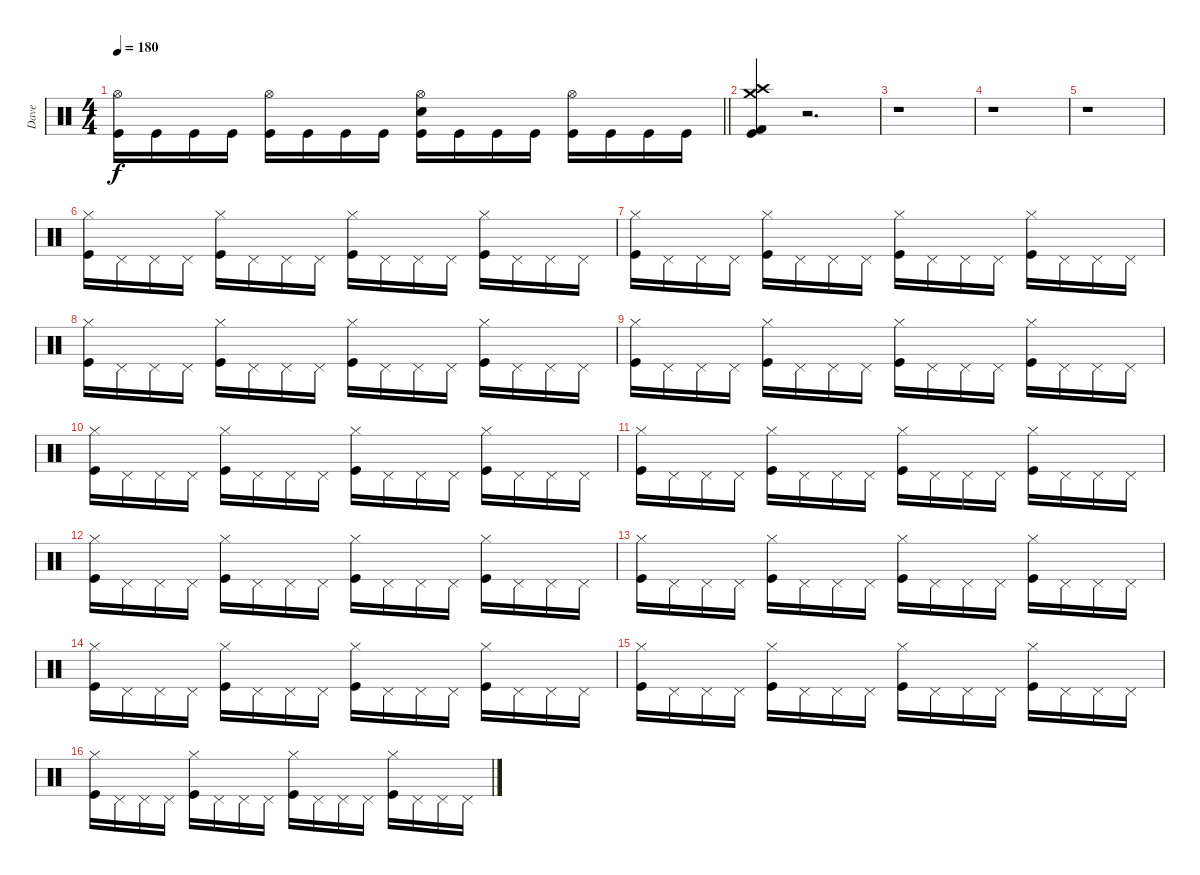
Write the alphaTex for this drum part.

\track ("Dave" "Dave") {instrument percussion}
\staff {score}
\articulation defaults
\ts (4 4)
\tempo 180
\clef neutral
\barLineRight lightlight
\ks c
("Hi-Hat (open)" "Kick (hit)").16{dy f} "Kick (hit)".16 "Kick (hit)".16 "Kick (hit)".16 ("Hi-Hat (open)" "Kick (hit)").16 "Kick (hit)".16 "Kick (hit)".16 "Kick (hit)".16 ("Hi-Hat (open)" "Snare (hit) 2" "Kick (hit)").16 "Kick (hit)".16 "Kick (hit)".16 "Kick (hit)".16 ("Hi-Hat (open)" "Kick (hit)").16 "Kick (hit)".16 "Kick (hit)".16 "Kick (hit)".16 |
("Crash high (hit)" "Crash medium (hit)" "Kick (hit) 2" "Kick (hit)").4 r.2{d} |
r.1 |
r.1 |
r.1 |
("Kick (hit)" "Hi-Hat (closed)").16 "Pedal Hi-Hat (hit)".16 "Pedal Hi-Hat (hit)".16 "Pedal Hi-Hat (hit)".16 ("Kick (hit)" "Hi-Hat (closed)").16 "Pedal Hi-Hat (hit)".16 "Pedal Hi-Hat (hit)".16 "Pedal Hi-Hat (hit)".16 ("Kick (hit)" "Hi-Hat (closed)").16 "Pedal Hi-Hat (hit)".16 "Pedal Hi-Hat (hit)".16 "Pedal Hi-Hat (hit)".16 ("Kick (hit)" "Hi-Hat (closed)").16 "Pedal Hi-Hat (hit)".16 "Pedal Hi-Hat (hit)".16 "Pedal Hi-Hat (hit)".16 |
("Kick (hit)" "Hi-Hat (closed)").16 "Pedal Hi-Hat (hit)".16 "Pedal Hi-Hat (hit)".16 "Pedal Hi-Hat (hit)".16 ("Kick (hit)" "Hi-Hat (closed)").16 "Pedal Hi-Hat (hit)".16 "Pedal Hi-Hat (hit)".16 "Pedal Hi-Hat (hit)".16 ("Kick (hit)" "Hi-Hat (closed)").16 "Pedal Hi-Hat (hit)".16 "Pedal Hi-Hat (hit)".16 "Pedal Hi-Hat (hit)".16 ("Kick (hit)" "Hi-Hat (closed)").16 "Pedal Hi-Hat (hit)".16 "Pedal Hi-Hat (hit)".16 "Pedal Hi-Hat (hit)".16 |
("Kick (hit)" "Hi-Hat (closed)").16 "Pedal Hi-Hat (hit)".16 "Pedal Hi-Hat (hit)".16 "Pedal Hi-Hat (hit)".16 ("Kick (hit)" "Hi-Hat (closed)").16 "Pedal Hi-Hat (hit)".16 "Pedal Hi-Hat (hit)".16 "Pedal Hi-Hat (hit)".16 ("Kick (hit)" "Hi-Hat (closed)").16 "Pedal Hi-Hat (hit)".16 "Pedal Hi-Hat (hit)".16 "Pedal Hi-Hat (hit)".16 ("Kick (hit)" "Hi-Hat (closed)").16 "Pedal Hi-Hat (hit)".16 "Pedal Hi-Hat (hit)".16 "Pedal Hi-Hat (hit)".16 |
("Kick (hit)" "Hi-Hat (closed)").16 "Pedal Hi-Hat (hit)".16 "Pedal Hi-Hat (hit)".16 "Pedal Hi-Hat (hit)".16 ("Kick (hit)" "Hi-Hat (closed)").16 "Pedal Hi-Hat (hit)".16 "Pedal Hi-Hat (hit)".16 "Pedal Hi-Hat (hit)".16 ("Kick (hit)" "Hi-Hat (closed)").16 "Pedal Hi-Hat (hit)".16 "Pedal Hi-Hat (hit)".16 "Pedal Hi-Hat (hit)".16 ("Kick (hit)" "Hi-Hat (closed)").16 "Pedal Hi-Hat (hit)".16 "Pedal Hi-Hat (hit)".16 "Pedal Hi-Hat (hit)".16 |
("Kick (hit)" "Hi-Hat (closed)").16 "Pedal Hi-Hat (hit)".16 "Pedal Hi-Hat (hit)".16 "Pedal Hi-Hat (hit)".16 ("Kick (hit)" "Hi-Hat (closed)").16 "Pedal Hi-Hat (hit)".16 "Pedal Hi-Hat (hit)".16 "Pedal Hi-Hat (hit)".16 ("Kick (hit)" "Hi-Hat (closed)").16 "Pedal Hi-Hat (hit)".16 "Pedal Hi-Hat (hit)".16 "Pedal Hi-Hat (hit)".16 ("Kick (hit)" "Hi-Hat (closed)").16 "Pedal Hi-Hat (hit)".16 "Pedal Hi-Hat (hit)".16 "Pedal Hi-Hat (hit)".16 |
("Kick (hit)" "Hi-Hat (closed)").16 "Pedal Hi-Hat (hit)".16 "Pedal Hi-Hat (hit)".16 "Pedal Hi-Hat (hit)".16 ("Kick (hit)" "Hi-Hat (closed)").16 "Pedal Hi-Hat (hit)".16 "Pedal Hi-Hat (hit)".16 "Pedal Hi-Hat (hit)".16 ("Kick (hit)" "Hi-Hat (closed)").16 "Pedal Hi-Hat (hit)".16 "Pedal Hi-Hat (hit)".16 "Pedal Hi-Hat (hit)".16 ("Kick (hit)" "Hi-Hat (closed)").16 "Pedal Hi-Hat (hit)".16 "Pedal Hi-Hat (hit)".16 "Pedal Hi-Hat (hit)".16 |
("Kick (hit)" "Hi-Hat (closed)").16 "Pedal Hi-Hat (hit)".16 "Pedal Hi-Hat (hit)".16 "Pedal Hi-Hat (hit)".16 ("Kick (hit)" "Hi-Hat (closed)").16 "Pedal Hi-Hat (hit)".16 "Pedal Hi-Hat (hit)".16 "Pedal Hi-Hat (hit)".16 ("Kick (hit)" "Hi-Hat (closed)").16 "Pedal Hi-Hat (hit)".16 "Pedal Hi-Hat (hit)".16 "Pedal Hi-Hat (hit)".16 ("Kick (hit)" "Hi-Hat (closed)").16 "Pedal Hi-Hat (hit)".16 "Pedal Hi-Hat (hit)".16 "Pedal Hi-Hat (hit)".16 |
("Kick (hit)" "Hi-Hat (closed)").16 "Pedal Hi-Hat (hit)".16 "Pedal Hi-Hat (hit)".16 "Pedal Hi-Hat (hit)".16 ("Kick (hit)" "Hi-Hat (closed)").16 "Pedal Hi-Hat (hit)".16 "Pedal Hi-Hat (hit)".16 "Pedal Hi-Hat (hit)".16 ("Kick (hit)" "Hi-Hat (closed)").16 "Pedal Hi-Hat (hit)".16 "Pedal Hi-Hat (hit)".16 "Pedal Hi-Hat (hit)".16 ("Kick (hit)" "Hi-Hat (closed)").16 "Pedal Hi-Hat (hit)".16 "Pedal Hi-Hat (hit)".16 "Pedal Hi-Hat (hit)".16 |
("Kick (hit)" "Hi-Hat (closed)").16 "Pedal Hi-Hat (hit)".16 "Pedal Hi-Hat (hit)".16 "Pedal Hi-Hat (hit)".16 ("Kick (hit)" "Hi-Hat (closed)").16 "Pedal Hi-Hat (hit)".16 "Pedal Hi-Hat (hit)".16 "Pedal Hi-Hat (hit)".16 ("Kick (hit)" "Hi-Hat (closed)").16 "Pedal Hi-Hat (hit)".16 "Pedal Hi-Hat (hit)".16 "Pedal Hi-Hat (hit)".16 ("Kick (hit)" "Hi-Hat (closed)").16 "Pedal Hi-Hat (hit)".16 "Pedal Hi-Hat (hit)".16 "Pedal Hi-Hat (hit)".16 |
("Kick (hit)" "Hi-Hat (closed)").16 "Pedal Hi-Hat (hit)".16 "Pedal Hi-Hat (hit)".16 "Pedal Hi-Hat (hit)".16 ("Kick (hit)" "Hi-Hat (closed)").16 "Pedal Hi-Hat (hit)".16 "Pedal Hi-Hat (hit)".16 "Pedal Hi-Hat (hit)".16 ("Kick (hit)" "Hi-Hat (closed)").16 "Pedal Hi-Hat (hit)".16 "Pedal Hi-Hat (hit)".16 "Pedal Hi-Hat (hit)".16 ("Kick (hit)" "Hi-Hat (closed)").16 "Pedal Hi-Hat (hit)".16 "Pedal Hi-Hat (hit)".16 "Pedal Hi-Hat (hit)".16 |
("Kick (hit)" "Hi-Hat (closed)").16 "Pedal Hi-Hat (hit)".16 "Pedal Hi-Hat (hit)".16 "Pedal Hi-Hat (hit)".16 ("Kick (hit)" "Hi-Hat (closed)").16 "Pedal Hi-Hat (hit)".16 "Pedal Hi-Hat (hit)".16 "Pedal Hi-Hat (hit)".16 ("Kick (hit)" "Hi-Hat (closed)").16 "Pedal Hi-Hat (hit)".16 "Pedal Hi-Hat (hit)".16 "Pedal Hi-Hat (hit)".16 ("Kick (hit)" "Hi-Hat (closed)").16 "Pedal Hi-Hat (hit)".16 "Pedal Hi-Hat (hit)".16 "Pedal Hi-Hat (hit)".16
